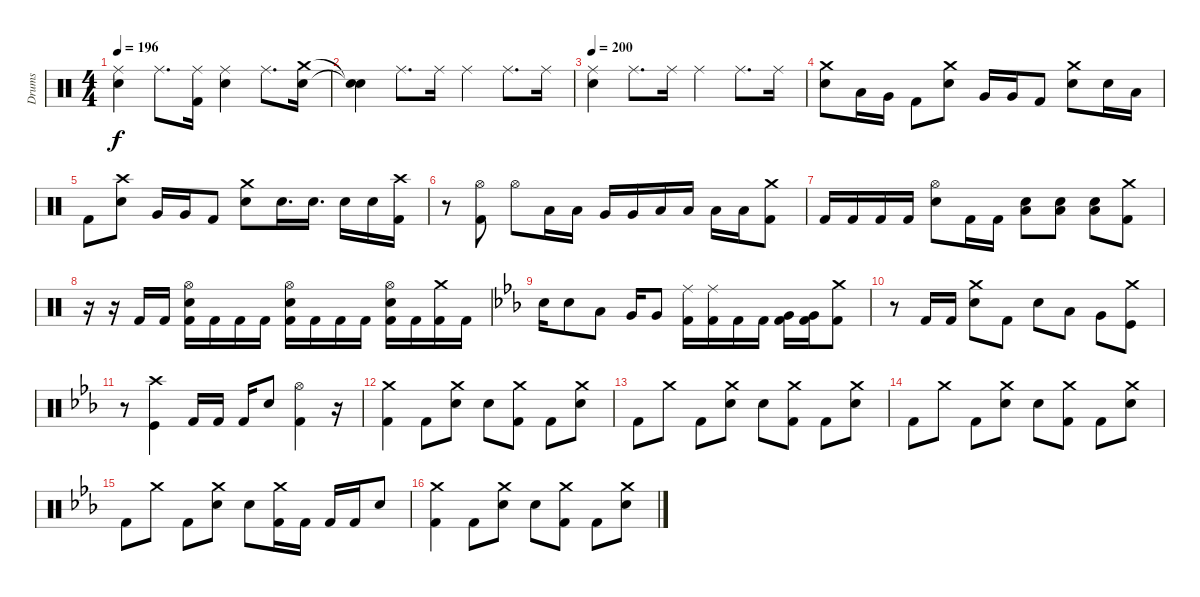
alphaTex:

\track ("Drums" "Drums") {instrument percussion}
\staff {score}
\articulation defaults
\ts (4 4)
\tempo 196
\clef neutral
\ks c
("Ride (middle)" "Electric Snare (hit)").4{dy f} "Ride (middle)".8{d} ("Ride (middle)" "Kick (hit) 2").16 ("Ride (middle)" "Electric Snare (hit)").4 "Ride (middle)".8{d} ("Electric Snare (hit)" "Crash medium (hit)").16 |
("Snare (hit)"{t} "Snare (hit)"{t}).4 "Ride (middle)".8{d} "Ride (middle)".16 "Ride (middle)".4 "Ride (middle)".8{d} "Ride (middle)".16 |
\tempo 200
("Ride (middle)" "Electric Snare (hit)").4 "Ride (middle)".8{d} "Ride (middle)".16 "Ride (middle)".4 "Ride (middle)".8{d} "Ride (middle)".16 |
("Electric Snare (hit)" "Crash medium (hit)").8 "Low Tom (hit)".16 "Very Low Tom (hit)".16 "Kick (hit) 2".8 ("Electric Snare (hit)" "Crash medium (hit)").8 "Very Low Tom (hit)".16 "Very Low Tom (hit)".16 "Kick (hit) 2".8 ("Electric Snare (hit)" "Crash medium (hit)").8 "Electric Snare (hit)".16 "Low Tom (hit)".16 |
"Kick (hit) 2".8 ("Electric Snare (hit)" "Crash high (hit)").8 "Very Low Tom (hit)".16 "Very Low Tom (hit)".16 "Kick (hit) 2".8 ("Electric Snare (hit)" "Crash medium (hit)").8 "Electric Snare (hit)".16{d} "Electric Snare (hit)".16{d} "Electric Snare (hit)".16 "Electric Snare (hit)".16 ("Kick (hit) 2" "Crash high (hit)").16 |
r.8 ("Hi-Hat (open)" "Kick (hit) 2").8 "Hi-Hat (open)".8 "Low Tom (hit)".16 "Low Tom (hit)".16 "Very Low Tom (hit)".16 "Very Low Tom (hit)".16 "Low Floor Tom (hit)".16 "Low Floor Tom (hit)".16 "Low Floor Tom (hit)".16 "Low Floor Tom (hit)".16 ("Kick (hit) 2" "Crash medium (hit)").8 |
"Kick (hit) 2".16 "Kick (hit) 2".16 "Kick (hit) 2".16 "Kick (hit) 2".16 ("Electric Snare (hit)" "Hi-Hat (open)").8 "Kick (hit) 2".16 "Kick (hit) 2".16 ("Electric Snare (hit)" "Low Floor Tom (hit)").8 ("Electric Snare (hit)" "Low Floor Tom (hit)").8 ("Electric Snare (hit)" "Low Floor Tom (hit)").8 ("Crash medium (hit)" "Kick (hit) 2").8 |
r.16 r.16 "Kick (hit) 2".16 "Kick (hit) 2".16 ("Kick (hit) 2" "Electric Snare (hit)" "Hi-Hat (open)").16 "Kick (hit) 2".16 "Kick (hit) 2".16 "Kick (hit) 2".16 ("Kick (hit) 2" "Electric Snare (hit)" "Hi-Hat (open)").16 "Kick (hit) 2".16 "Kick (hit) 2".16 "Kick (hit) 2".16 ("Kick (hit) 2" "Electric Snare (hit)" "Hi-Hat (open)").16 "Kick (hit) 2".16 ("Kick (hit) 2" "Crash medium (hit)").16 "Kick (hit) 2".16 |
\ks eb "Electric Snare (hit)".16 "Electric Snare (hit)".8 "Low Tom (hit)".8 "Very Low Tom (hit)".16 "Very Low Tom (hit)".8
("Kick (hit) 2" "Ride (middle)").16 ("Kick (hit) 2" "Ride (middle)").16 "Kick (hit) 2".16 "Kick (hit) 2".16 ("Kick (hit) 2" "Very Low Tom (hit)").16 ("Kick (hit) 2" "Very Low Tom (hit)").16 ("Kick (hit) 2" "Crash medium (hit)").8 |
r.8 "Kick (hit) 2".16 "Kick (hit) 2".16 ("Electric Snare (hit)" "Crash medium (hit)").8 "Kick (hit) 2".8 "Electric Snare (hit)".8 "Low Tom (hit)".8 "Very Low Tom (hit)".8 ("Kick (hit)" "Crash medium (hit)").8 |
r.8 ("Kick (hit)" "Crash high (hit)").4 "Kick (hit) 2".16 "Kick (hit) 2".16 "Kick (hit) 2".16 "Electric Snare (hit)".8 ("Kick (hit) 2" "Hi-Hat (open)").4 r.16 |
("Crash medium (hit)" "Kick (hit) 2").4 "Kick (hit) 2".8 ("Electric Snare (hit)" "Crash medium (hit)").8 "Electric Snare (hit)".8 ("Kick (hit) 2" "Crash medium (hit)").8 "Kick (hit) 2".8 ("Electric Snare (hit)" "Crash medium (hit)").8 |
"Kick (hit) 2".8 "Crash medium (hit)".8 "Kick (hit) 2".8 ("Electric Snare (hit)" "Crash medium (hit)").8 "Electric Snare (hit)".8 ("Kick (hit) 2" "Crash medium (hit)").8 "Kick (hit) 2".8 ("Electric Snare (hit)" "Crash medium (hit)").8 |
"Kick (hit) 2".8 "Crash medium (hit)".8 "Kick (hit) 2".8 ("Electric Snare (hit)" "Crash medium (hit)").8 "Electric Snare (hit)".8 ("Kick (hit) 2" "Crash medium (hit)").8 "Kick (hit) 2".8 ("Electric Snare (hit)" "Crash medium (hit)").8 |
"Kick (hit) 2".8 "Crash medium (hit)".8 "Kick (hit) 2".8 ("Electric Snare (hit)" "Crash medium (hit)").8 "Electric Snare (hit)".8 ("Kick (hit) 2" "Crash medium (hit)").16 "Kick (hit) 2".16 "Kick (hit) 2".16 "Kick (hit) 2".16 "Electric Snare (hit)".8 |
("Crash medium (hit)" "Kick (hit) 2").4 "Kick (hit) 2".8 ("Electric Snare (hit)" "Crash medium (hit)").8 "Electric Snare (hit)".8 ("Kick (hit) 2" "Crash medium (hit)").8 "Kick (hit) 2".8 ("Electric Snare (hit)" "Crash medium (hit)").8
